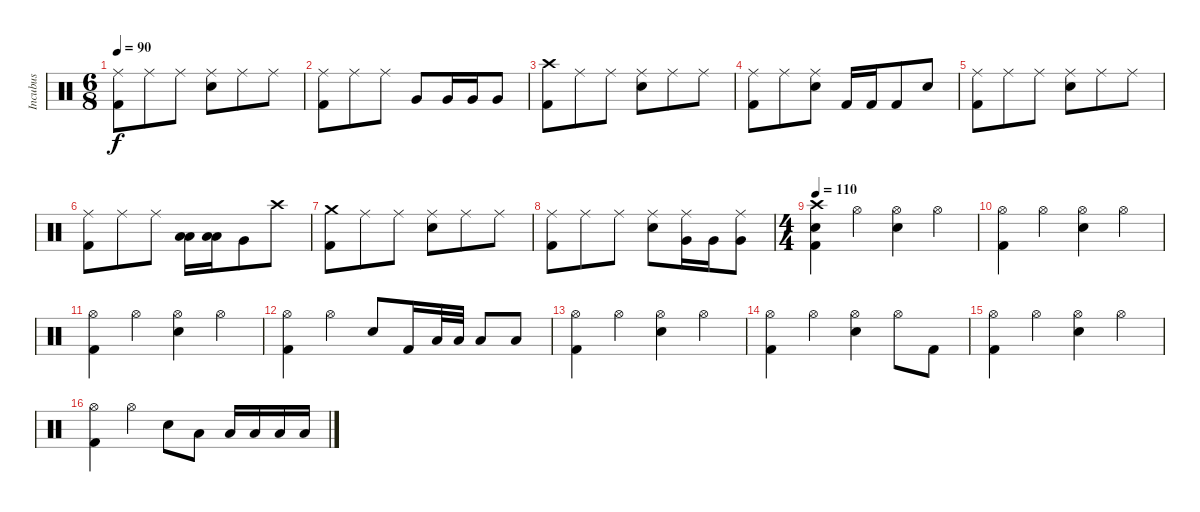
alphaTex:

\track ("Incubus" "Incubus") {instrument percussion}
\staff {score}
\articulation defaults
\ts (6 8)
\tempo 90
\clef neutral
\ks c
("Ride (middle)" "Kick (hit) 2").8{dy f} "Ride (middle)".8 "Ride (middle)".8 ("Ride (middle)" "Electric Snare (hit)").8 "Ride (middle)".8 "Ride (middle)".8 |
("Ride (middle)" "Kick (hit) 2").8 "Ride (middle)".8 "Ride (middle)".8 "Very Low Tom (hit)".8 "Very Low Tom (hit)".16 "Very Low Tom (hit)".16 "Very Low Tom (hit)".8 |
("Crash high (hit)" "Kick (hit) 2").8 "Ride (middle)".8 "Ride (middle)".8 ("Ride (middle)" "Electric Snare (hit)").8 "Ride (middle)".8 "Ride (middle)".8 |
("Ride (middle)" "Kick (hit) 2").8 "Ride (middle)".8 ("Ride (middle)" "Electric Snare (hit)").8 "Kick (hit) 2".16 "Kick (hit) 2".16 "Kick (hit) 2".8 "Electric Snare (hit)".8 |
("Ride (middle)" "Kick (hit) 2").8 "Ride (middle)".8 "Ride (middle)".8 ("Ride (middle)" "Electric Snare (hit)").8 "Ride (middle)".8 "Ride (middle)".8 |
("Ride (middle)" "Kick (hit) 2").8 "Ride (middle)".8 "Ride (middle)".8 ("Low Tom (hit)" "Low Tom (hit)").16 ("Low Tom (hit)" "Low Tom (hit)").16 "Very Low Tom (hit)".8 "Crash high (hit)".8 |
("Crash medium (hit)" "Kick (hit) 2").8 "Ride (middle)".8 "Ride (middle)".8 ("Ride (middle)" "Electric Snare (hit)").8 "Ride (middle)".8 "Ride (middle)".8 |
("Ride (middle)" "Kick (hit) 2").8 "Ride (middle)".8 "Ride (middle)".8 ("Ride (middle)" "Electric Snare (hit)").8 ("Ride (middle)" "Very Low Tom (hit)").16 "Very Low Tom (hit)".16 ("Ride (middle)" "Very Low Tom (hit)").8 |
\ts (4 4)
\tempo 110
("Crash high (hit)" "Electric Snare (hit)" "Kick (hit) 2").4 "Hi-Hat (open)".4 ("Hi-Hat (open)" "Electric Snare (hit)").4 "Hi-Hat (open)".4 |
("Hi-Hat (open)" "Kick (hit) 2").4 "Hi-Hat (open)".4 ("Hi-Hat (open)" "Electric Snare (hit)").4 "Hi-Hat (open)".4 |
("Hi-Hat (open)" "Kick (hit) 2").4 "Hi-Hat (open)".4 ("Hi-Hat (open)" "Electric Snare (hit)").4 "Hi-Hat (open)".4 |
("Hi-Hat (open)" "Kick (hit) 2").4 "Hi-Hat (open)".4 "Electric Snare (hit)".8 "Kick (hit) 2".16 "Low Tom (hit)".32 "Low Tom (hit)".32 "Low Tom (hit)".8 "Low Tom (hit)".8 |
("Hi-Hat (open)" "Kick (hit) 2").4 "Hi-Hat (open)".4 ("Hi-Hat (open)" "Electric Snare (hit)").4 "Hi-Hat (open)".4 |
("Hi-Hat (open)" "Kick (hit) 2").4 "Hi-Hat (open)".4 ("Hi-Hat (open)" "Electric Snare (hit)").4 "Hi-Hat (open)".8 "Kick (hit) 2".8 |
("Hi-Hat (open)" "Kick (hit) 2").4 "Hi-Hat (open)".4 ("Hi-Hat (open)" "Electric Snare (hit)").4 "Hi-Hat (open)".4 |
("Hi-Hat (open)" "Kick (hit) 2").4 "Hi-Hat (open)".4 "Electric Snare (hit)".8 "Low Tom (hit)".8 "Low Tom (hit)".16 "Low Tom (hit)".16 "Low Tom (hit)".16 "Low Tom (hit)".16
